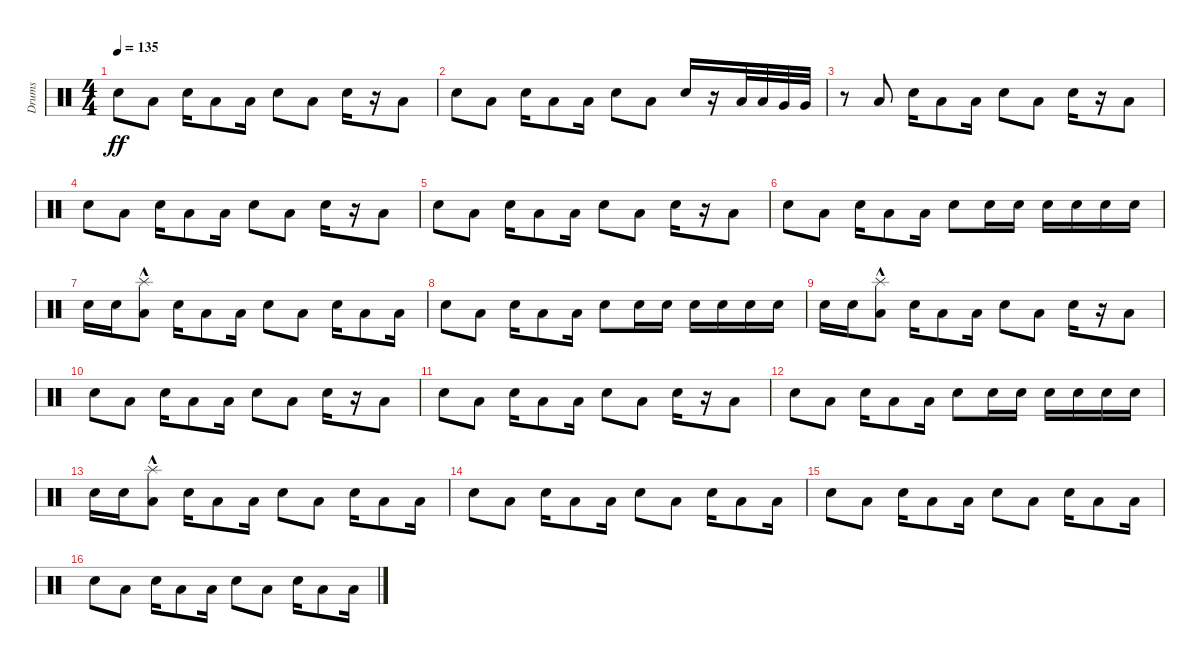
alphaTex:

\track ("Drums" "Drums") {instrument percussion}
\staff {score}
\articulation defaults
\ts (4 4)
\tempo 135
\clef neutral
\ks c "Electric Snare (hit)".8{dy ff} "Low Floor Tom (hit)".8 "Electric Snare (hit)".16 "Low Floor Tom (hit)".8 "Low Floor Tom (hit)".16 "Electric Snare (hit)".8 "Low Floor Tom (hit)".8 "Electric Snare (hit)".16
r.16 "Low Floor Tom (hit)".8 |
"Electric Snare (hit)".8 "Low Floor Tom (hit)".8 "Electric Snare (hit)".16 "Low Floor Tom (hit)".8 "Low Floor Tom (hit)".16 "Electric Snare (hit)".8 "Low Floor Tom (hit)".8 "Electric Snare (hit)".16 r.16 "Low Tom (hit)".32 "Low Tom (hit)".32 "Very Low Tom (hit)".32 "Very Low Tom (hit)".32 |
r.8 "Low Floor Tom (hit)".8 "Electric Snare (hit)".16 "Low Floor Tom (hit)".8 "Low Floor Tom (hit)".16 "Electric Snare (hit)".8 "Low Floor Tom (hit)".8 "Electric Snare (hit)".16 r.16 "Low Floor Tom (hit)".8 |
"Electric Snare (hit)".8 "Low Floor Tom (hit)".8 "Electric Snare (hit)".16 "Low Floor Tom (hit)".8 "Low Floor Tom (hit)".16 "Electric Snare (hit)".8 "Low Floor Tom (hit)".8 "Electric Snare (hit)".16 r.16 "Low Floor Tom (hit)".8 |
"Electric Snare (hit)".8 "Low Floor Tom (hit)".8 "Electric Snare (hit)".16 "Low Floor Tom (hit)".8 "Low Floor Tom (hit)".16 "Electric Snare (hit)".8 "Low Floor Tom (hit)".8 "Electric Snare (hit)".16 r.16 "Low Floor Tom (hit)".8 |
"Electric Snare (hit)".8 "Low Floor Tom (hit)".8 "Electric Snare (hit)".16 "Low Floor Tom (hit)".8 "Low Floor Tom (hit)".16 "Electric Snare (hit)".8 "Electric Snare (hit)".16 "Electric Snare (hit)".16 "Electric Snare (hit)".16 "Electric Snare (hit)".16 "Electric Snare (hit)".16 "Electric Snare (hit)".16 |
"Electric Snare (hit)".16 "Electric Snare (hit)".16 ("Low Floor Tom (hit)" "Splash (hit)"{hac}).8 "Electric Snare (hit)".16 "Low Floor Tom (hit)".8 "Low Floor Tom (hit)".16 "Electric Snare (hit)".8 "Low Floor Tom (hit)".8 "Electric Snare (hit)".16 "Low Floor Tom (hit)".8 "Low Floor Tom (hit)".16 |
"Electric Snare (hit)".8 "Low Floor Tom (hit)".8 "Electric Snare (hit)".16 "Low Floor Tom (hit)".8 "Low Floor Tom (hit)".16 "Electric Snare (hit)".8 "Electric Snare (hit)".16 "Electric Snare (hit)".16 "Electric Snare (hit)".16 "Electric Snare (hit)".16 "Electric Snare (hit)".16 "Electric Snare (hit)".16 |
"Electric Snare (hit)".16 "Electric Snare (hit)".16 ("Low Floor Tom (hit)" "Splash (hit)"{hac}).8 "Electric Snare (hit)".16 "Low Floor Tom (hit)".8 "Low Floor Tom (hit)".16 "Electric Snare (hit)".8 "Low Floor Tom (hit)".8 "Electric Snare (hit)".16 r.16 "Low Floor Tom (hit)".8 |
"Electric Snare (hit)".8 "Low Floor Tom (hit)".8 "Electric Snare (hit)".16 "Low Floor Tom (hit)".8 "Low Floor Tom (hit)".16 "Electric Snare (hit)".8 "Low Floor Tom (hit)".8 "Electric Snare (hit)".16 r.16 "Low Floor Tom (hit)".8 |
"Electric Snare (hit)".8 "Low Floor Tom (hit)".8 "Electric Snare (hit)".16 "Low Floor Tom (hit)".8 "Low Floor Tom (hit)".16 "Electric Snare (hit)".8 "Low Floor Tom (hit)".8 "Electric Snare (hit)".16 r.16 "Low Floor Tom (hit)".8 |
"Electric Snare (hit)".8 "Low Floor Tom (hit)".8 "Electric Snare (hit)".16 "Low Floor Tom (hit)".8 "Low Floor Tom (hit)".16 "Electric Snare (hit)".8 "Electric Snare (hit)".16 "Electric Snare (hit)".16 "Electric Snare (hit)".16 "Electric Snare (hit)".16 "Electric Snare (hit)".16 "Electric Snare (hit)".16 |
"Electric Snare (hit)".16 "Electric Snare (hit)".16 ("Low Floor Tom (hit)" "Splash (hit)"{hac}).8 "Electric Snare (hit)".16 "Low Floor Tom (hit)".8 "Low Floor Tom (hit)".16 "Electric Snare (hit)".8 "Low Floor Tom (hit)".8 "Electric Snare (hit)".16 "Low Floor Tom (hit)".8 "Low Floor Tom (hit)".16 |
"Electric Snare (hit)".8 "Low Floor Tom (hit)".8 "Electric Snare (hit)".16 "Low Floor Tom (hit)".8 "Low Floor Tom (hit)".16 "Electric Snare (hit)".8 "Low Floor Tom (hit)".8 "Electric Snare (hit)".16 "Low Floor Tom (hit)".8 "Low Floor Tom (hit)".16 |
"Electric Snare (hit)".8 "Low Floor Tom (hit)".8 "Electric Snare (hit)".16 "Low Floor Tom (hit)".8 "Low Floor Tom (hit)".16 "Electric Snare (hit)".8 "Low Floor Tom (hit)".8 "Electric Snare (hit)".16 "Low Floor Tom (hit)".8 "Low Floor Tom (hit)".16 |
"Electric Snare (hit)".8 "Low Floor Tom (hit)".8 "Electric Snare (hit)".16 "Low Floor Tom (hit)".8 "Low Floor Tom (hit)".16 "Electric Snare (hit)".8 "Low Floor Tom (hit)".8 "Electric Snare (hit)".16 "Low Floor Tom (hit)".8 "Low Floor Tom (hit)".16
